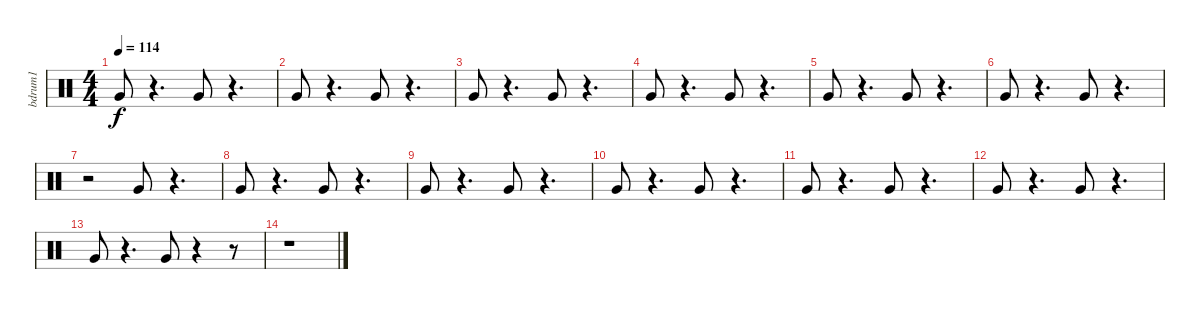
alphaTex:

\track ("bdrum1              " "bdrum1    ") {instrument percussion}
\staff {score}
\articulation defaults
\ts (4 4)
\tempo 114
\clef neutral
\ks c "Very Low Tom (hit)".8{dy f}
r.4{d} "Very Low Tom (hit)".8 r.4{d} |
"Very Low Tom (hit)".8 r.4{d} "Very Low Tom (hit)".8 r.4{d} |
"Very Low Tom (hit)".8 r.4{d} "Very Low Tom (hit)".8 r.4{d} |
"Very Low Tom (hit)".8 r.4{d} "Very Low Tom (hit)".8 r.4{d} |
"Very Low Tom (hit)".8 r.4{d} "Very Low Tom (hit)".8 r.4{d} |
"Very Low Tom (hit)".8 r.4{d} "Very Low Tom (hit)".8 r.4{d} |
r.2 "Very Low Tom (hit)".8 r.4{d} |
"Very Low Tom (hit)".8 r.4{d} "Very Low Tom (hit)".8 r.4{d} |
"Very Low Tom (hit)".8 r.4{d} "Very Low Tom (hit)".8 r.4{d} |
"Very Low Tom (hit)".8 r.4{d} "Very Low Tom (hit)".8 r.4{d} |
"Very Low Tom (hit)".8 r.4{d} "Very Low Tom (hit)".8 r.4{d} |
"Very Low Tom (hit)".8 r.4{d} "Very Low Tom (hit)".8 r.4{d} |
"Very Low Tom (hit)".8 r.4{d} "Very Low Tom (hit)".8 r.4 r.8 |
r.1
